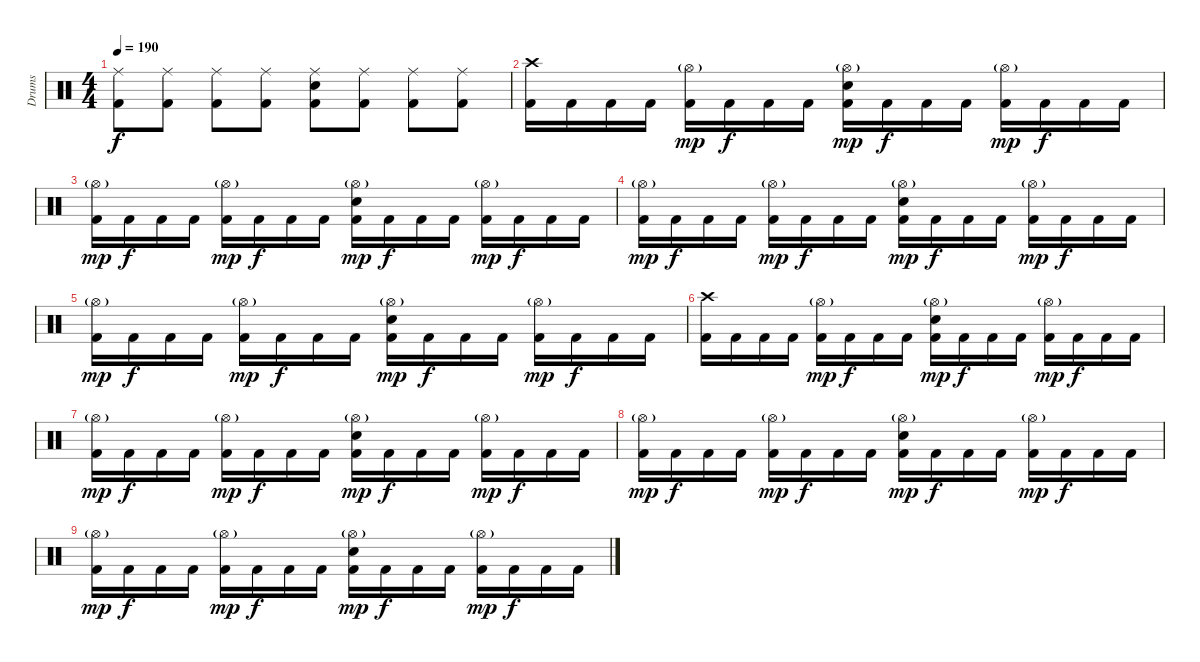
\track ("Drums" "Drums") {instrument percussion}
\staff {score}
\articulation defaults
\ts (4 4)
\tempo 190
\clef neutral
\ks c
("Ride (middle)" "Kick (hit) 2").8{dy f} ("Ride (middle)" "Kick (hit) 2").8 ("Ride (middle)" "Kick (hit) 2").8 ("Ride (middle)" "Kick (hit) 2").8 ("Ride (middle)" "Electric Snare (hit)" "Kick (hit) 2").8 ("Ride (middle)" "Kick (hit) 2").8 ("Ride (middle)" "Kick (hit) 2").8 ("Ride (middle)" "Kick (hit) 2").8 |
("Crash high (hit)" "Kick (hit) 2").16 "Kick (hit) 2".16 "Kick (hit) 2".16 "Kick (hit) 2".16 ("Hi-Hat (open)"{g} "Kick (hit) 2").16{dy mp} "Kick (hit) 2".16{dy f} "Kick (hit) 2".16 "Kick (hit) 2".16 ("Hi-Hat (open)"{g} "Electric Snare (hit)" "Kick (hit) 2").16{dy mp} "Kick (hit) 2".16{dy f} "Kick (hit) 2".16 "Kick (hit) 2".16 ("Hi-Hat (open)"{g} "Kick (hit) 2").16{dy mp} "Kick (hit) 2".16{dy f} "Kick (hit) 2".16 "Kick (hit) 2".16 |
("Hi-Hat (open)"{g} "Kick (hit) 2").16{dy mp} "Kick (hit) 2".16{dy f} "Kick (hit) 2".16 "Kick (hit) 2".16 ("Hi-Hat (open)"{g} "Kick (hit) 2").16{dy mp} "Kick (hit) 2".16{dy f} "Kick (hit) 2".16 "Kick (hit) 2".16 ("Hi-Hat (open)"{g} "Electric Snare (hit)" "Kick (hit) 2").16{dy mp} "Kick (hit) 2".16{dy f} "Kick (hit) 2".16 "Kick (hit) 2".16 ("Hi-Hat (open)"{g} "Kick (hit) 2").16{dy mp} "Kick (hit) 2".16{dy f} "Kick (hit) 2".16 "Kick (hit) 2".16 |
("Hi-Hat (open)"{g} "Kick (hit) 2").16{dy mp} "Kick (hit) 2".16{dy f} "Kick (hit) 2".16 "Kick (hit) 2".16 ("Hi-Hat (open)"{g} "Kick (hit) 2").16{dy mp} "Kick (hit) 2".16{dy f} "Kick (hit) 2".16 "Kick (hit) 2".16 ("Hi-Hat (open)"{g} "Electric Snare (hit)" "Kick (hit) 2").16{dy mp} "Kick (hit) 2".16{dy f} "Kick (hit) 2".16 "Kick (hit) 2".16 ("Hi-Hat (open)"{g} "Kick (hit) 2").16{dy mp} "Kick (hit) 2".16{dy f} "Kick (hit) 2".16 "Kick (hit) 2".16 |
("Hi-Hat (open)"{g} "Kick (hit) 2").16{dy mp} "Kick (hit) 2".16{dy f} "Kick (hit) 2".16 "Kick (hit) 2".16 ("Hi-Hat (open)"{g} "Kick (hit) 2").16{dy mp} "Kick (hit) 2".16{dy f} "Kick (hit) 2".16 "Kick (hit) 2".16 ("Hi-Hat (open)"{g} "Electric Snare (hit)" "Kick (hit) 2").16{dy mp} "Kick (hit) 2".16{dy f} "Kick (hit) 2".16 "Kick (hit) 2".16 ("Hi-Hat (open)"{g} "Kick (hit) 2").16{dy mp} "Kick (hit) 2".16{dy f} "Kick (hit) 2".16 "Kick (hit) 2".16 |
("Crash high (hit)" "Kick (hit) 2").16 "Kick (hit) 2".16 "Kick (hit) 2".16 "Kick (hit) 2".16 ("Hi-Hat (open)"{g} "Kick (hit) 2").16{dy mp} "Kick (hit) 2".16{dy f} "Kick (hit) 2".16 "Kick (hit) 2".16 ("Hi-Hat (open)"{g} "Electric Snare (hit)" "Kick (hit) 2").16{dy mp} "Kick (hit) 2".16{dy f} "Kick (hit) 2".16 "Kick (hit) 2".16 ("Hi-Hat (open)"{g} "Kick (hit) 2").16{dy mp} "Kick (hit) 2".16{dy f} "Kick (hit) 2".16 "Kick (hit) 2".16 |
("Hi-Hat (open)"{g} "Kick (hit) 2").16{dy mp} "Kick (hit) 2".16{dy f} "Kick (hit) 2".16 "Kick (hit) 2".16 ("Hi-Hat (open)"{g} "Kick (hit) 2").16{dy mp} "Kick (hit) 2".16{dy f} "Kick (hit) 2".16 "Kick (hit) 2".16 ("Hi-Hat (open)"{g} "Electric Snare (hit)" "Kick (hit) 2").16{dy mp} "Kick (hit) 2".16{dy f} "Kick (hit) 2".16 "Kick (hit) 2".16 ("Hi-Hat (open)"{g} "Kick (hit) 2").16{dy mp} "Kick (hit) 2".16{dy f} "Kick (hit) 2".16 "Kick (hit) 2".16 |
("Hi-Hat (open)"{g} "Kick (hit) 2").16{dy mp} "Kick (hit) 2".16{dy f} "Kick (hit) 2".16 "Kick (hit) 2".16 ("Hi-Hat (open)"{g} "Kick (hit) 2").16{dy mp} "Kick (hit) 2".16{dy f} "Kick (hit) 2".16 "Kick (hit) 2".16 ("Hi-Hat (open)"{g} "Electric Snare (hit)" "Kick (hit) 2").16{dy mp} "Kick (hit) 2".16{dy f} "Kick (hit) 2".16 "Kick (hit) 2".16 ("Hi-Hat (open)"{g} "Kick (hit) 2").16{dy mp} "Kick (hit) 2".16{dy f} "Kick (hit) 2".16 "Kick (hit) 2".16 |
("Hi-Hat (open)"{g} "Kick (hit) 2").16{dy mp} "Kick (hit) 2".16{dy f} "Kick (hit) 2".16 "Kick (hit) 2".16 ("Hi-Hat (open)"{g} "Kick (hit) 2").16{dy mp} "Kick (hit) 2".16{dy f} "Kick (hit) 2".16 "Kick (hit) 2".16 ("Hi-Hat (open)"{g} "Electric Snare (hit)" "Kick (hit) 2").16{dy mp} "Kick (hit) 2".16{dy f} "Kick (hit) 2".16 "Kick (hit) 2".16 ("Hi-Hat (open)"{g} "Kick (hit) 2").16{dy mp} "Kick (hit) 2".16{dy f} "Kick (hit) 2".16 "Kick (hit) 2".16
